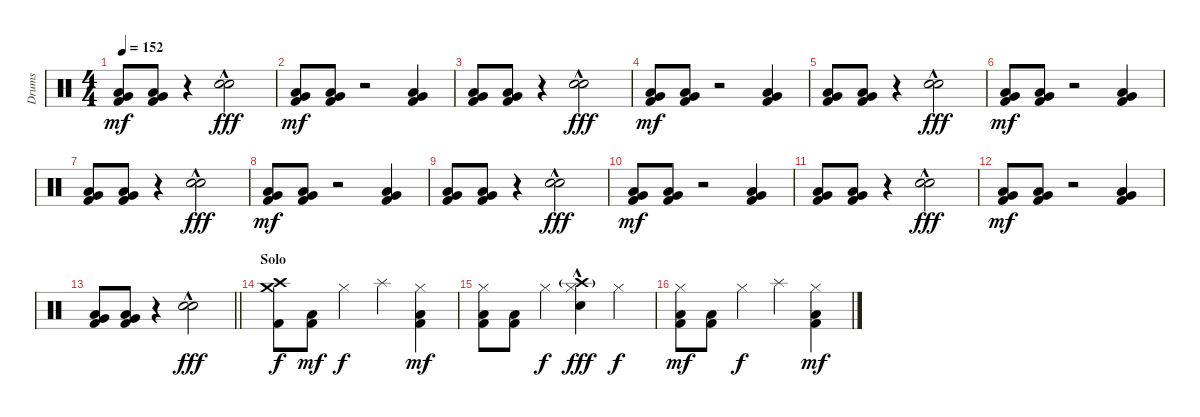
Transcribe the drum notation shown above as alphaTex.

\track ("Drums" "Drums") {instrument percussion}
\staff {score}
\articulation defaults
\ts (4 4)
\tempo 152
\clef neutral
\ks c
("Very Low Tom (hit)" "Low Floor Tom (hit)" "Kick (hit) 2").8{dy mf} ("Very Low Tom (hit)" "Low Floor Tom (hit)" "Kick (hit) 2").8 r.4 ("Electric Snare (hit)"{hac} "Snare (hit) 2"{hac}).2{dy fff} |
("Very Low Tom (hit)" "Low Floor Tom (hit)" "Kick (hit) 2").8{dy mf} ("Very Low Tom (hit)" "Low Floor Tom (hit)" "Kick (hit) 2").8 r.2 ("Very Low Tom (hit)" "Low Floor Tom (hit)" "Kick (hit) 2").4 |
("Very Low Tom (hit)" "Low Floor Tom (hit)" "Kick (hit) 2").8 ("Very Low Tom (hit)" "Low Floor Tom (hit)" "Kick (hit) 2").8 r.4 ("Electric Snare (hit)"{hac} "Snare (hit) 2"{hac}).2{dy fff} |
("Very Low Tom (hit)" "Low Floor Tom (hit)" "Kick (hit) 2").8{dy mf} ("Very Low Tom (hit)" "Low Floor Tom (hit)" "Kick (hit) 2").8 r.2 ("Very Low Tom (hit)" "Low Floor Tom (hit)" "Kick (hit) 2").4 |
("Very Low Tom (hit)" "Low Floor Tom (hit)" "Kick (hit) 2").8 ("Very Low Tom (hit)" "Low Floor Tom (hit)" "Kick (hit) 2").8 r.4 ("Electric Snare (hit)"{hac} "Snare (hit) 2"{hac}).2{dy fff} |
("Very Low Tom (hit)" "Low Floor Tom (hit)" "Kick (hit) 2").8{dy mf} ("Very Low Tom (hit)" "Low Floor Tom (hit)" "Kick (hit) 2").8 r.2 ("Very Low Tom (hit)" "Low Floor Tom (hit)" "Kick (hit) 2").4 |
("Very Low Tom (hit)" "Low Floor Tom (hit)" "Kick (hit) 2").8 ("Very Low Tom (hit)" "Low Floor Tom (hit)" "Kick (hit) 2").8 r.4 ("Electric Snare (hit)"{hac} "Snare (hit) 2"{hac}).2{dy fff} |
("Very Low Tom (hit)" "Low Floor Tom (hit)" "Kick (hit) 2").8{dy mf} ("Very Low Tom (hit)" "Low Floor Tom (hit)" "Kick (hit) 2").8 r.2 ("Very Low Tom (hit)" "Low Floor Tom (hit)" "Kick (hit) 2").4 |
("Very Low Tom (hit)" "Low Floor Tom (hit)" "Kick (hit) 2").8 ("Very Low Tom (hit)" "Low Floor Tom (hit)" "Kick (hit) 2").8 r.4 ("Electric Snare (hit)"{hac} "Snare (hit) 2"{hac}).2{dy fff} |
("Very Low Tom (hit)" "Low Floor Tom (hit)" "Kick (hit) 2").8{dy mf} ("Very Low Tom (hit)" "Low Floor Tom (hit)" "Kick (hit) 2").8 r.2 ("Very Low Tom (hit)" "Low Floor Tom (hit)" "Kick (hit) 2").4 |
("Very Low Tom (hit)" "Low Floor Tom (hit)" "Kick (hit) 2").8 ("Very Low Tom (hit)" "Low Floor Tom (hit)" "Kick (hit) 2").8 r.4 ("Electric Snare (hit)"{hac} "Snare (hit) 2"{hac}).2{dy fff} |
("Very Low Tom (hit)" "Low Floor Tom (hit)" "Kick (hit) 2").8{dy mf} ("Very Low Tom (hit)" "Low Floor Tom (hit)" "Kick (hit) 2").8 r.2 ("Very Low Tom (hit)" "Low Floor Tom (hit)" "Kick (hit) 2").4 |
\barLineRight lightlight
("Very Low Tom (hit)" "Low Floor Tom (hit)" "Kick (hit) 2").8 ("Very Low Tom (hit)" "Low Floor Tom (hit)" "Kick (hit) 2").8 r.4 ("Electric Snare (hit)"{hac} "Snare (hit) 2"{hac}).2{dy fff} |
\section ("" "Solo")
("Crash high (hit)" "Crash medium (hit)" "Kick (hit) 2").8{dy f} ("Low Floor Tom (hit)" "Kick (hit) 2").8{dy mf} "Hi-Hat (closed)".4{dy f} "Splash (hit)".4 ("Hi-Hat (closed)" "Low Floor Tom (hit)" "Kick (hit) 2").4{dy mf} |
("Hi-Hat (closed)" "Low Floor Tom (hit)" "Kick (hit) 2").8 ("Low Floor Tom (hit)" "Kick (hit) 2").8 "Hi-Hat (closed)".4{dy f} ("Crash high (hit)"{g} "Hi-Hat (closed)" "Snare (hit) 2"{hac}).4{dy fff} "Hi-Hat (closed)".4{dy f} |
("Hi-Hat (closed)" "Low Floor Tom (hit)" "Kick (hit) 2").8{dy mf} ("Low Floor Tom (hit)" "Kick (hit) 2").8 "Hi-Hat (closed)".4{dy f} "Splash (hit)".4 ("Hi-Hat (closed)" "Low Floor Tom (hit)" "Kick (hit) 2").4{dy mf}
